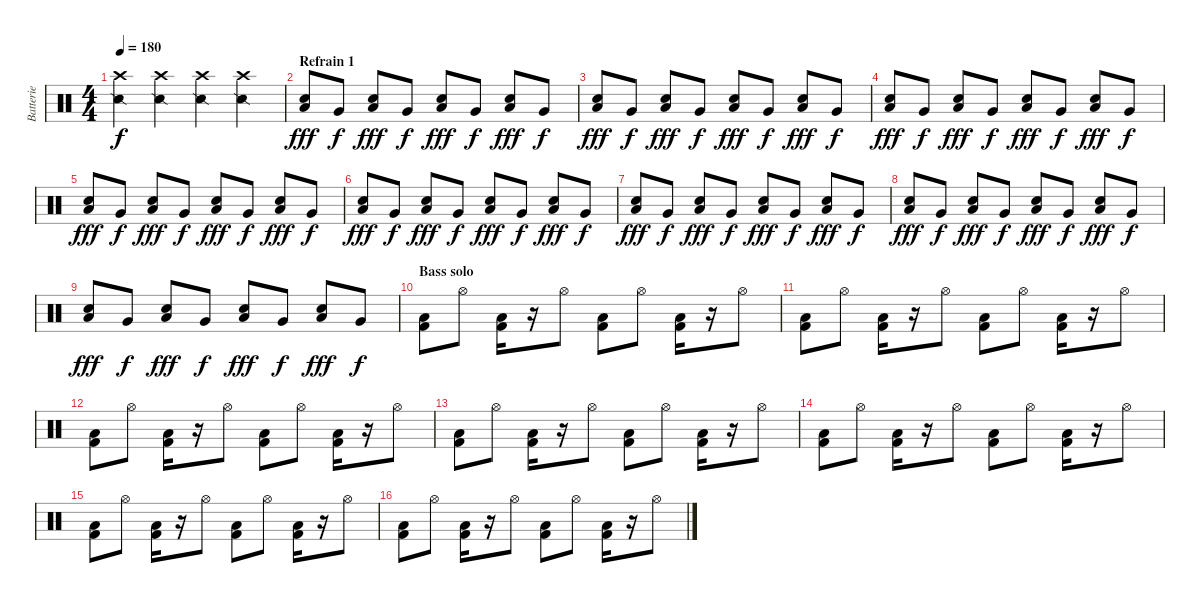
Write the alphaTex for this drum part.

\track ("Batterie" "Batterie") {instrument percussion}
\staff {score}
\articulation defaults
\ts (4 4)
\tempo 180
\clef neutral
\ks c
("Crash high (hit)" "Snare (side stick) 2").4{dy f} ("Crash high (hit)" "Snare (side stick) 2").4 ("Crash high (hit)" "Snare (side stick) 2").4 ("Crash high (hit)" "Snare (side stick) 2").4 |
\section ("" "Refrain 1")
("Electric Snare (hit)" "Low Floor Tom (hit)").8{dy fff} "Very Low Tom (hit)".8{dy f} ("Electric Snare (hit)" "Low Floor Tom (hit)").8{dy fff} "Very Low Tom (hit)".8{dy f} ("Electric Snare (hit)" "Low Floor Tom (hit)").8{dy fff} "Very Low Tom (hit)".8{dy f} ("Electric Snare (hit)" "Low Floor Tom (hit)").8{dy fff} "Very Low Tom (hit)".8{dy f} |
("Electric Snare (hit)" "Low Floor Tom (hit)").8{dy fff} "Very Low Tom (hit)".8{dy f} ("Electric Snare (hit)" "Low Floor Tom (hit)").8{dy fff} "Very Low Tom (hit)".8{dy f} ("Electric Snare (hit)" "Low Floor Tom (hit)").8{dy fff} "Very Low Tom (hit)".8{dy f} ("Electric Snare (hit)" "Low Floor Tom (hit)").8{dy fff} "Very Low Tom (hit)".8{dy f} |
("Electric Snare (hit)" "Low Floor Tom (hit)").8{dy fff} "Very Low Tom (hit)".8{dy f} ("Electric Snare (hit)" "Low Floor Tom (hit)").8{dy fff} "Very Low Tom (hit)".8{dy f} ("Electric Snare (hit)" "Low Floor Tom (hit)").8{dy fff} "Very Low Tom (hit)".8{dy f} ("Electric Snare (hit)" "Low Floor Tom (hit)").8{dy fff} "Very Low Tom (hit)".8{dy f} |
("Electric Snare (hit)" "Low Floor Tom (hit)").8{dy fff} "Very Low Tom (hit)".8{dy f} ("Electric Snare (hit)" "Low Floor Tom (hit)").8{dy fff} "Very Low Tom (hit)".8{dy f} ("Electric Snare (hit)" "Low Floor Tom (hit)").8{dy fff} "Very Low Tom (hit)".8{dy f} ("Electric Snare (hit)" "Low Floor Tom (hit)").8{dy fff} "Very Low Tom (hit)".8{dy f} |
("Electric Snare (hit)" "Low Floor Tom (hit)").8{dy fff} "Very Low Tom (hit)".8{dy f} ("Electric Snare (hit)" "Low Floor Tom (hit)").8{dy fff} "Very Low Tom (hit)".8{dy f} ("Electric Snare (hit)" "Low Floor Tom (hit)").8{dy fff} "Very Low Tom (hit)".8{dy f} ("Electric Snare (hit)" "Low Floor Tom (hit)").8{dy fff} "Very Low Tom (hit)".8{dy f} |
("Electric Snare (hit)" "Low Floor Tom (hit)").8{dy fff} "Very Low Tom (hit)".8{dy f} ("Electric Snare (hit)" "Low Floor Tom (hit)").8{dy fff} "Very Low Tom (hit)".8{dy f} ("Electric Snare (hit)" "Low Floor Tom (hit)").8{dy fff} "Very Low Tom (hit)".8{dy f} ("Electric Snare (hit)" "Low Floor Tom (hit)").8{dy fff} "Very Low Tom (hit)".8{dy f} |
("Electric Snare (hit)" "Low Floor Tom (hit)").8{dy fff} "Very Low Tom (hit)".8{dy f} ("Electric Snare (hit)" "Low Floor Tom (hit)").8{dy fff} "Very Low Tom (hit)".8{dy f} ("Electric Snare (hit)" "Low Floor Tom (hit)").8{dy fff} "Very Low Tom (hit)".8{dy f} ("Electric Snare (hit)" "Low Floor Tom (hit)").8{dy fff} "Very Low Tom (hit)".8{dy f} |
("Electric Snare (hit)" "Low Floor Tom (hit)").8{dy fff} "Very Low Tom (hit)".8{dy f} ("Electric Snare (hit)" "Low Floor Tom (hit)").8{dy fff} "Very Low Tom (hit)".8{dy f} ("Electric Snare (hit)" "Low Floor Tom (hit)").8{dy fff} "Very Low Tom (hit)".8{dy f} ("Electric Snare (hit)" "Low Floor Tom (hit)").8{dy fff} "Very Low Tom (hit)".8{dy f} |
\section ("" "Bass solo")
("Kick (hit) 2" "Low Floor Tom (hit)").8{volume 9} "Hi-Hat (open)".8 ("Kick (hit) 2" "Low Floor Tom (hit)").16 r.16 "Hi-Hat (open)".8 ("Kick (hit) 2" "Low Floor Tom (hit)").8 "Hi-Hat (open)".8 ("Kick (hit) 2" "Low Floor Tom (hit)").16 r.16 "Hi-Hat (open)".8 |
("Kick (hit) 2" "Low Floor Tom (hit)").8 "Hi-Hat (open)".8 ("Kick (hit) 2" "Low Floor Tom (hit)").16 r.16 "Hi-Hat (open)".8 ("Kick (hit) 2" "Low Floor Tom (hit)").8 "Hi-Hat (open)".8 ("Kick (hit) 2" "Low Floor Tom (hit)").16 r.16 "Hi-Hat (open)".8 |
("Kick (hit) 2" "Low Floor Tom (hit)").8 "Hi-Hat (open)".8 ("Kick (hit) 2" "Low Floor Tom (hit)").16 r.16 "Hi-Hat (open)".8 ("Kick (hit) 2" "Low Floor Tom (hit)").8 "Hi-Hat (open)".8 ("Kick (hit) 2" "Low Floor Tom (hit)").16 r.16 "Hi-Hat (open)".8 |
("Kick (hit) 2" "Low Floor Tom (hit)").8 "Hi-Hat (open)".8 ("Kick (hit) 2" "Low Floor Tom (hit)").16 r.16 "Hi-Hat (open)".8 ("Kick (hit) 2" "Low Floor Tom (hit)").8 "Hi-Hat (open)".8 ("Kick (hit) 2" "Low Floor Tom (hit)").16 r.16 "Hi-Hat (open)".8 |
("Kick (hit) 2" "Low Floor Tom (hit)").8{volume 9} "Hi-Hat (open)".8 ("Kick (hit) 2" "Low Floor Tom (hit)").16 r.16 "Hi-Hat (open)".8 ("Kick (hit) 2" "Low Floor Tom (hit)").8 "Hi-Hat (open)".8 ("Kick (hit) 2" "Low Floor Tom (hit)").16 r.16 "Hi-Hat (open)".8 |
("Kick (hit) 2" "Low Floor Tom (hit)").8 "Hi-Hat (open)".8 ("Kick (hit) 2" "Low Floor Tom (hit)").16 r.16 "Hi-Hat (open)".8 ("Kick (hit) 2" "Low Floor Tom (hit)").8 "Hi-Hat (open)".8 ("Kick (hit) 2" "Low Floor Tom (hit)").16 r.16 "Hi-Hat (open)".8 |
("Kick (hit) 2" "Low Floor Tom (hit)").8 "Hi-Hat (open)".8 ("Kick (hit) 2" "Low Floor Tom (hit)").16 r.16 "Hi-Hat (open)".8 ("Kick (hit) 2" "Low Floor Tom (hit)").8 "Hi-Hat (open)".8 ("Kick (hit) 2" "Low Floor Tom (hit)").16 r.16 "Hi-Hat (open)".8
